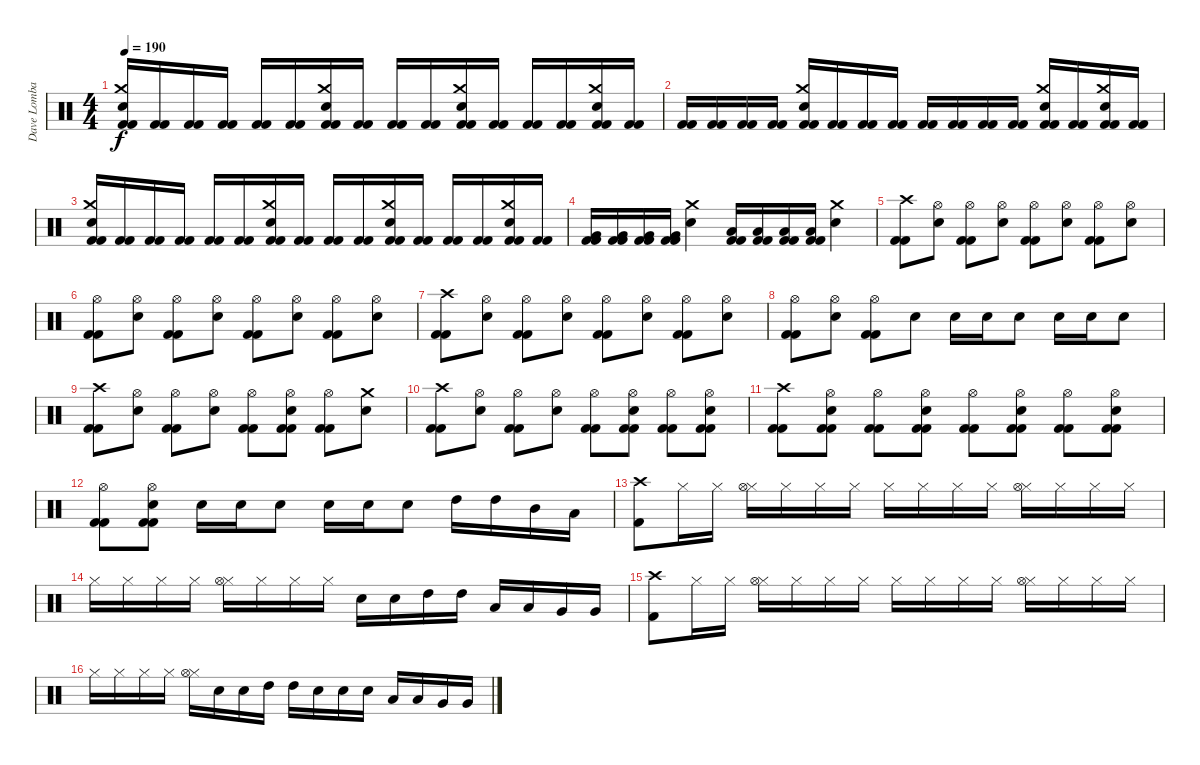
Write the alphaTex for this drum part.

\track ("Dave Lombardo" "Dave Lomba") {instrument percussion}
\staff {score}
\articulation defaults
\ts (4 4)
\tempo 190
\clef neutral
\ks c
("Kick (hit) 2" "Crash medium (hit)" "Electric Snare (hit)" "Kick (hit) 2").16{dy f} ("Kick (hit) 2" "Kick (hit) 2").16 ("Kick (hit) 2" "Kick (hit) 2").16 ("Kick (hit) 2" "Kick (hit) 2").16 ("Kick (hit) 2" "Kick (hit) 2").16 ("Kick (hit) 2" "Kick (hit) 2").16 ("Kick (hit) 2" "Crash medium (hit)" "Electric Snare (hit)" "Kick (hit) 2").16 ("Kick (hit) 2" "Kick (hit) 2").16 ("Kick (hit) 2" "Kick (hit) 2").16 ("Kick (hit) 2" "Kick (hit) 2").16 ("Kick (hit) 2" "Crash medium (hit)" "Electric Snare (hit)" "Kick (hit) 2").16 ("Kick (hit) 2" "Kick (hit) 2").16 ("Kick (hit) 2" "Kick (hit) 2").16 ("Kick (hit) 2" "Kick (hit) 2").16 ("Kick (hit) 2" "Crash medium (hit)" "Electric Snare (hit)" "Kick (hit) 2").16 ("Kick (hit) 2" "Kick (hit) 2").16 |
("Kick (hit) 2" "Kick (hit) 2").16 ("Kick (hit) 2" "Kick (hit) 2").16 ("Kick (hit) 2" "Kick (hit) 2").16 ("Kick (hit) 2" "Kick (hit) 2").16 ("Kick (hit) 2" "Crash medium (hit)" "Electric Snare (hit)" "Kick (hit) 2").16 ("Kick (hit) 2" "Kick (hit) 2").16 ("Kick (hit) 2" "Kick (hit) 2").16 ("Kick (hit) 2" "Kick (hit) 2").16 ("Kick (hit) 2" "Kick (hit) 2").16 ("Kick (hit) 2" "Kick (hit) 2").16 ("Kick (hit) 2" "Kick (hit) 2").16 ("Kick (hit) 2" "Kick (hit) 2").16 ("Kick (hit) 2" "Crash medium (hit)" "Electric Snare (hit)" "Kick (hit) 2").16 ("Kick (hit) 2" "Kick (hit) 2").16 ("Kick (hit) 2" "Crash medium (hit)" "Electric Snare (hit)" "Kick (hit) 2").16 ("Kick (hit) 2" "Kick (hit) 2").16 |
("Kick (hit) 2" "Crash medium (hit)" "Electric Snare (hit)" "Kick (hit) 2").16 ("Kick (hit) 2" "Kick (hit) 2").16 ("Kick (hit) 2" "Kick (hit) 2").16 ("Kick (hit) 2" "Kick (hit) 2").16 ("Kick (hit) 2" "Kick (hit) 2").16 ("Kick (hit) 2" "Kick (hit) 2").16 ("Kick (hit) 2" "Crash medium (hit)" "Electric Snare (hit)" "Kick (hit) 2").16 ("Kick (hit) 2" "Kick (hit) 2").16 ("Kick (hit) 2" "Kick (hit) 2").16 ("Kick (hit) 2" "Kick (hit) 2").16 ("Kick (hit) 2" "Crash medium (hit)" "Electric Snare (hit)" "Kick (hit) 2").16 ("Kick (hit) 2" "Kick (hit) 2").16 ("Kick (hit) 2" "Kick (hit) 2").16 ("Kick (hit) 2" "Kick (hit) 2").16 ("Kick (hit) 2" "Crash medium (hit)" "Electric Snare (hit)" "Kick (hit) 2").16 ("Kick (hit) 2" "Kick (hit) 2").16 |
("Kick (hit) 2" "Very Low Tom (hit)" "Kick (hit) 2").16 ("Kick (hit) 2" "Very Low Tom (hit)" "Kick (hit) 2").16 ("Kick (hit) 2" "Very Low Tom (hit)" "Kick (hit) 2").16 ("Kick (hit) 2" "Very Low Tom (hit)" "Kick (hit) 2").16 ("Crash medium (hit)" "Electric Snare (hit)").4 ("Kick (hit) 2" "Low Floor Tom (hit)" "Kick (hit) 2").16 ("Kick (hit) 2" "Low Floor Tom (hit)" "Kick (hit) 2").16 ("Kick (hit) 2" "Low Floor Tom (hit)" "Kick (hit) 2").16 ("Kick (hit) 2" "Low Floor Tom (hit)" "Kick (hit) 2").16 ("Crash medium (hit)" "Electric Snare (hit)").4 |
("Kick (hit) 2" "Crash high (hit)" "Kick (hit) 2").8 ("Hi-Hat (open)" "Electric Snare (hit)").8 ("Kick (hit) 2" "Hi-Hat (open)" "Kick (hit) 2").8 ("Hi-Hat (open)" "Electric Snare (hit)").8 ("Kick (hit) 2" "Hi-Hat (open)" "Kick (hit) 2").8 ("Hi-Hat (open)" "Electric Snare (hit)").8 ("Kick (hit) 2" "Hi-Hat (open)" "Kick (hit) 2").8 ("Hi-Hat (open)" "Electric Snare (hit)").8 |
("Kick (hit) 2" "Hi-Hat (open)" "Kick (hit) 2").8 ("Hi-Hat (open)" "Electric Snare (hit)").8 ("Kick (hit) 2" "Hi-Hat (open)" "Kick (hit) 2").8 ("Hi-Hat (open)" "Electric Snare (hit)").8 ("Kick (hit) 2" "Hi-Hat (open)" "Kick (hit) 2").8 ("Hi-Hat (open)" "Electric Snare (hit)").8 ("Kick (hit) 2" "Hi-Hat (open)" "Kick (hit) 2").8 ("Hi-Hat (open)" "Electric Snare (hit)").8 |
("Kick (hit) 2" "Crash high (hit)" "Kick (hit) 2").8 ("Hi-Hat (open)" "Electric Snare (hit)").8 ("Kick (hit) 2" "Hi-Hat (open)" "Kick (hit) 2").8 ("Hi-Hat (open)" "Electric Snare (hit)").8 ("Kick (hit) 2" "Hi-Hat (open)" "Kick (hit) 2").8 ("Hi-Hat (open)" "Electric Snare (hit)").8 ("Kick (hit) 2" "Hi-Hat (open)" "Kick (hit) 2").8 ("Hi-Hat (open)" "Electric Snare (hit)").8 |
("Kick (hit) 2" "Hi-Hat (open)" "Kick (hit) 2").8 ("Hi-Hat (open)" "Electric Snare (hit)").8 ("Kick (hit) 2" "Hi-Hat (open)" "Kick (hit) 2").8 "Electric Snare (hit)".8 "Electric Snare (hit)".16 "Electric Snare (hit)".16 "Electric Snare (hit)".8 "Electric Snare (hit)".16 "Electric Snare (hit)".16 "Electric Snare (hit)".8 |
("Kick (hit) 2" "Crash high (hit)" "Kick (hit) 2").8 ("Hi-Hat (open)" "Electric Snare (hit)").8 ("Kick (hit) 2" "Hi-Hat (open)" "Kick (hit) 2").8 ("Hi-Hat (open)" "Electric Snare (hit)").8 ("Kick (hit) 2" "Hi-Hat (open)" "Kick (hit) 2").8 ("Kick (hit) 2" "Hi-Hat (open)" "Electric Snare (hit)" "Kick (hit) 2").8 ("Kick (hit) 2" "Hi-Hat (open)" "Kick (hit) 2").8 ("Crash medium (hit)" "Electric Snare (hit)").8 |
("Kick (hit) 2" "Crash high (hit)" "Kick (hit) 2").8 ("Hi-Hat (open)" "Electric Snare (hit)").8 ("Kick (hit) 2" "Hi-Hat (open)" "Kick (hit) 2").8 ("Hi-Hat (open)" "Electric Snare (hit)").8 ("Kick (hit) 2" "Hi-Hat (open)" "Kick (hit) 2").8 ("Kick (hit) 2" "Hi-Hat (open)" "Electric Snare (hit)" "Kick (hit) 2").8 ("Kick (hit) 2" "Hi-Hat (open)" "Kick (hit) 2").8 ("Kick (hit) 2" "Hi-Hat (open)" "Electric Snare (hit)" "Kick (hit) 2").8 |
("Kick (hit) 2" "Crash high (hit)" "Kick (hit) 2").8 ("Kick (hit) 2" "Hi-Hat (open)" "Electric Snare (hit)" "Kick (hit) 2").8 ("Kick (hit) 2" "Hi-Hat (open)" "Kick (hit) 2").8 ("Kick (hit) 2" "Hi-Hat (open)" "Electric Snare (hit)" "Kick (hit) 2").8 ("Kick (hit) 2" "Hi-Hat (open)" "Kick (hit) 2").8 ("Kick (hit) 2" "Hi-Hat (open)" "Electric Snare (hit)" "Kick (hit) 2").8 ("Kick (hit) 2" "Hi-Hat (open)" "Kick (hit) 2").8 ("Kick (hit) 2" "Hi-Hat (open)" "Electric Snare (hit)" "Kick (hit) 2").8 |
("Kick (hit) 2" "Hi-Hat (open)" "Kick (hit) 2").8 ("Kick (hit) 2" "Hi-Hat (open)" "Electric Snare (hit)" "Kick (hit) 2").8 "Electric Snare (hit)".16 "Electric Snare (hit)".16 "Electric Snare (hit)".8 "Electric Snare (hit)".16 "Electric Snare (hit)".16 "Electric Snare (hit)".8 "High Tom (hit)".16 "High Tom (hit)".16 "Mid Tom (hit)".16 "Low Tom (hit)".16 |
("Crash high (hit)" "Kick (hit) 2").8 "Hi-Hat (closed)".16 "Hi-Hat (closed)".16 ("Hi-Hat (closed)" "Hi-Hat (open)").16 "Hi-Hat (closed)".16 "Hi-Hat (closed)".16 "Hi-Hat (closed)".16 "Hi-Hat (closed)".16 "Hi-Hat (closed)".16 "Hi-Hat (closed)".16 "Hi-Hat (closed)".16 ("Hi-Hat (closed)" "Hi-Hat (open)").16 "Hi-Hat (closed)".16 "Hi-Hat (closed)".16 "Hi-Hat (closed)".16 |
"Hi-Hat (closed)".16 "Hi-Hat (closed)".16 "Hi-Hat (closed)".16 "Hi-Hat (closed)".16 ("Hi-Hat (closed)" "Hi-Hat (open)").16 "Hi-Hat (closed)".16 "Hi-Hat (closed)".16 "Hi-Hat (closed)".16 "Electric Snare (hit)".16 "Electric Snare (hit)".16 "High Tom (hit)".16 "High Tom (hit)".16 "Low Tom (hit)".16 "Low Tom (hit)".16 "Very Low Tom (hit)".16 "Very Low Tom (hit)".16 |
("Crash high (hit)" "Kick (hit) 2").8 "Hi-Hat (closed)".16 "Hi-Hat (closed)".16 ("Hi-Hat (closed)" "Hi-Hat (open)").16 "Hi-Hat (closed)".16 "Hi-Hat (closed)".16 "Hi-Hat (closed)".16 "Hi-Hat (closed)".16 "Hi-Hat (closed)".16 "Hi-Hat (closed)".16 "Hi-Hat (closed)".16 ("Hi-Hat (closed)" "Hi-Hat (open)").16 "Hi-Hat (closed)".16 "Hi-Hat (closed)".16 "Hi-Hat (closed)".16 |
"Hi-Hat (closed)".16 "Hi-Hat (closed)".16 "Hi-Hat (closed)".16 "Hi-Hat (closed)".16 ("Hi-Hat (closed)" "Hi-Hat (open)").16 "Electric Snare (hit)".16 "Electric Snare (hit)".16 "High Tom (hit)".16 "High Tom (hit)".16 "Electric Snare (hit)".16 "Electric Snare (hit)".16 "Electric Snare (hit)".16 "Low Tom (hit)".16 "Low Tom (hit)".16 "Very Low Tom (hit)".16 "Very Low Tom (hit)".16
